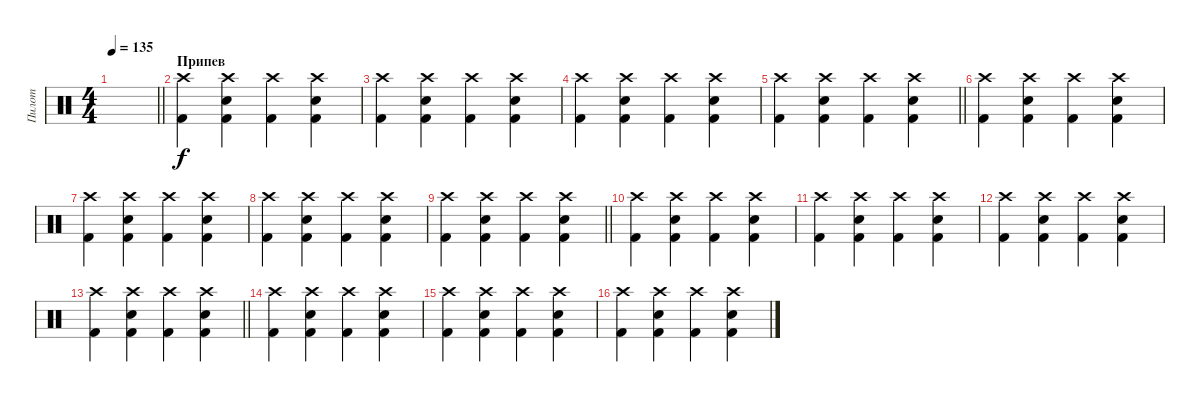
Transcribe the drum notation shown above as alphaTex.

\track ("Пилот" "Пилот") {instrument percussion}
\staff {score}
\articulation defaults
\ts (4 4)
\tempo 135
\clef neutral
\barLineRight lightlight
\ks c
|
\section ("" "Припев")
("Crash high (hit)" "Kick (hit) 2").4 ("Crash high (hit)" "Kick (hit) 2" "Snare (hit) 2").4 ("Crash high (hit)" "Kick (hit) 2").4 ("Crash high (hit)" "Kick (hit) 2" "Snare (hit) 2").4 |
("Crash high (hit)" "Kick (hit) 2").4 ("Crash high (hit)" "Kick (hit) 2" "Snare (hit) 2").4 ("Crash high (hit)" "Kick (hit) 2").4 ("Crash high (hit)" "Kick (hit) 2" "Snare (hit) 2").4 |
("Crash high (hit)" "Kick (hit) 2").4 ("Crash high (hit)" "Kick (hit) 2" "Snare (hit) 2").4 ("Crash high (hit)" "Kick (hit) 2").4 ("Crash high (hit)" "Kick (hit) 2" "Snare (hit) 2").4 |
\barLineRight lightlight
("Crash high (hit)" "Kick (hit) 2").4 ("Crash high (hit)" "Kick (hit) 2" "Snare (hit) 2").4 ("Crash high (hit)" "Kick (hit) 2").4 ("Crash high (hit)" "Kick (hit) 2" "Snare (hit) 2").4 |
("Crash high (hit)" "Kick (hit) 2").4 ("Crash high (hit)" "Kick (hit) 2" "Snare (hit) 2").4 ("Crash high (hit)" "Kick (hit) 2").4 ("Crash high (hit)" "Kick (hit) 2" "Snare (hit) 2").4 |
("Crash high (hit)" "Kick (hit) 2").4 ("Crash high (hit)" "Kick (hit) 2" "Snare (hit) 2").4 ("Crash high (hit)" "Kick (hit) 2").4 ("Crash high (hit)" "Kick (hit) 2" "Snare (hit) 2").4 |
("Crash high (hit)" "Kick (hit) 2").4 ("Crash high (hit)" "Kick (hit) 2" "Snare (hit) 2").4 ("Crash high (hit)" "Kick (hit) 2").4 ("Crash high (hit)" "Kick (hit) 2" "Snare (hit) 2").4 |
\barLineRight lightlight
("Crash high (hit)" "Kick (hit) 2").4 ("Crash high (hit)" "Kick (hit) 2" "Snare (hit) 2").4 ("Crash high (hit)" "Kick (hit) 2").4 ("Crash high (hit)" "Kick (hit) 2" "Snare (hit) 2").4 |
("Crash high (hit)" "Kick (hit) 2").4 ("Crash high (hit)" "Kick (hit) 2" "Snare (hit) 2").4 ("Crash high (hit)" "Kick (hit) 2").4 ("Crash high (hit)" "Kick (hit) 2" "Snare (hit) 2").4 |
("Crash high (hit)" "Kick (hit) 2").4 ("Crash high (hit)" "Kick (hit) 2" "Snare (hit) 2").4 ("Crash high (hit)" "Kick (hit) 2").4 ("Crash high (hit)" "Kick (hit) 2" "Snare (hit) 2").4 |
("Crash high (hit)" "Kick (hit) 2").4 ("Crash high (hit)" "Kick (hit) 2" "Snare (hit) 2").4 ("Crash high (hit)" "Kick (hit) 2").4 ("Crash high (hit)" "Kick (hit) 2" "Snare (hit) 2").4 |
\barLineRight lightlight
("Crash high (hit)" "Kick (hit) 2").4 ("Crash high (hit)" "Kick (hit) 2" "Snare (hit) 2").4 ("Crash high (hit)" "Kick (hit) 2").4 ("Crash high (hit)" "Kick (hit) 2" "Snare (hit) 2").4 |
("Crash high (hit)" "Kick (hit) 2").4 ("Crash high (hit)" "Kick (hit) 2" "Snare (hit) 2").4 ("Crash high (hit)" "Kick (hit) 2").4 ("Crash high (hit)" "Kick (hit) 2" "Snare (hit) 2").4 |
("Crash high (hit)" "Kick (hit) 2").4 ("Crash high (hit)" "Kick (hit) 2" "Snare (hit) 2").4 ("Crash high (hit)" "Kick (hit) 2").4 ("Crash high (hit)" "Kick (hit) 2" "Snare (hit) 2").4 |
("Crash high (hit)" "Kick (hit) 2").4 ("Crash high (hit)" "Kick (hit) 2" "Snare (hit) 2").4 ("Crash high (hit)" "Kick (hit) 2").4 ("Crash high (hit)" "Kick (hit) 2" "Snare (hit) 2").4
